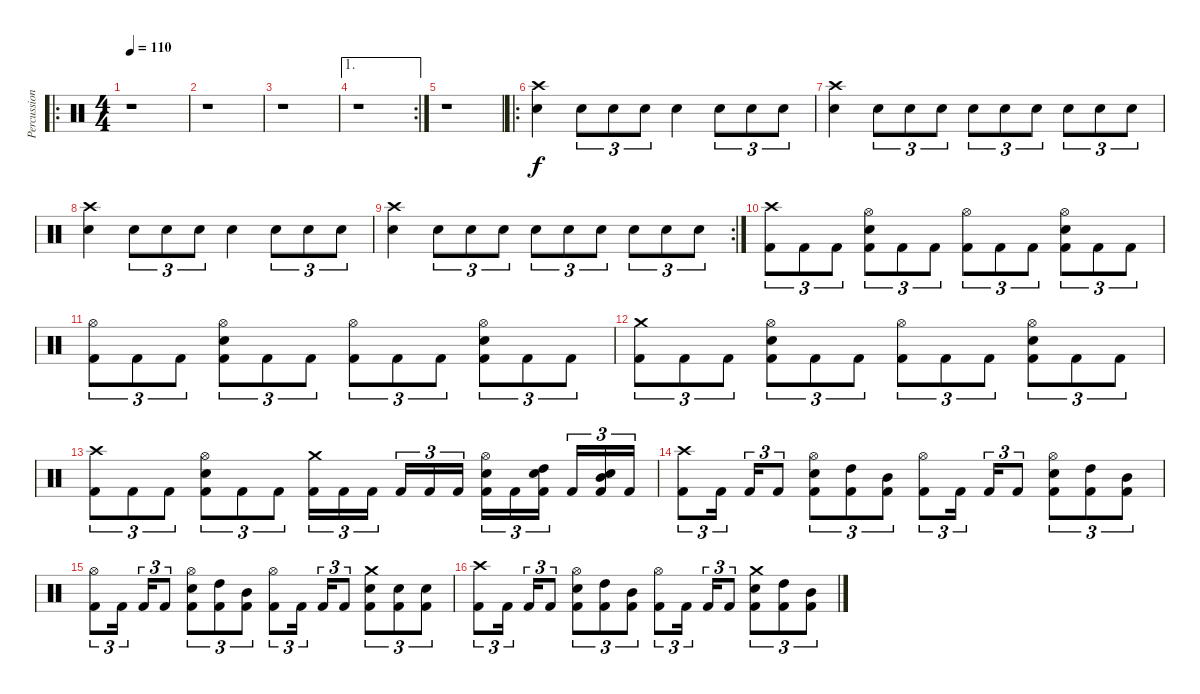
\track ("Percussion" "Percussion") {instrument percussion}
\staff {score}
\articulation defaults
\ro
\ts (4 4)
\tempo 110
\clef neutral
\ks c
r.1{dy f} |
r.1 |
r.1 |
\ae 1
\rc 2
r.1 |
r.1 |
\ro
("Crash high (hit)" "Snare (hit) 2").4 "Snare (hit) 2".8{tu (3 2)} "Snare (hit) 2".8{tu (3 2)} "Snare (hit) 2".8{tu (3 2)} "Snare (hit) 2".4 "Snare (hit) 2".8{tu (3 2)} "Snare (hit) 2".8{tu (3 2)} "Snare (hit) 2".8{tu (3 2)} |
("Crash high (hit)" "Snare (hit) 2").4 "Snare (hit) 2".8{tu (3 2)} "Snare (hit) 2".8{tu (3 2)} "Snare (hit) 2".8{tu (3 2)} "Snare (hit) 2".8{tu (3 2)} "Snare (hit) 2".8{tu (3 2)} "Snare (hit) 2".8{tu (3 2)} "Snare (hit) 2".8{tu (3 2)} "Snare (hit) 2".8{tu (3 2)} "Snare (hit) 2".8{tu (3 2)} |
("Crash high (hit)" "Snare (hit) 2").4 "Snare (hit) 2".8{tu (3 2)} "Snare (hit) 2".8{tu (3 2)} "Snare (hit) 2".8{tu (3 2)} "Snare (hit) 2".4 "Snare (hit) 2".8{tu (3 2)} "Snare (hit) 2".8{tu (3 2)} "Snare (hit) 2".8{tu (3 2)} |
\rc 2
("Crash high (hit)" "Snare (hit) 2").4 "Snare (hit) 2".8{tu (3 2)} "Snare (hit) 2".8{tu (3 2)} "Snare (hit) 2".8{tu (3 2)} "Snare (hit) 2".8{tu (3 2)} "Snare (hit) 2".8{tu (3 2)} "Snare (hit) 2".8{tu (3 2)} "Snare (hit) 2".8{tu (3 2)} "Snare (hit) 2".8{tu (3 2)} "Snare (hit) 2".8{tu (3 2)} |
\section ("" "")
("Crash high (hit)" "Kick (hit) 2").8{tu (3 2)} "Kick (hit) 2".8{tu (3 2)} "Kick (hit) 2".8{tu (3 2)} ("Hi-Hat (open)" "Snare (hit) 2" "Kick (hit) 2").8{tu (3 2)} "Kick (hit) 2".8{tu (3 2)} "Kick (hit) 2".8{tu (3 2)} ("Hi-Hat (open)" "Kick (hit) 2").8{tu (3 2)} "Kick (hit) 2".8{tu (3 2)} "Kick (hit) 2".8{tu (3 2)} ("Hi-Hat (open)" "Snare (hit) 2" "Kick (hit) 2").8{tu (3 2)} "Kick (hit) 2".8{tu (3 2)} "Kick (hit) 2".8{tu (3 2)} |
("Hi-Hat (open)" "Kick (hit) 2").8{tu (3 2)} "Kick (hit) 2".8{tu (3 2)} "Kick (hit) 2".8{tu (3 2)} ("Hi-Hat (open)" "Snare (hit) 2" "Kick (hit) 2").8{tu (3 2)} "Kick (hit) 2".8{tu (3 2)} "Kick (hit) 2".8{tu (3 2)} ("Hi-Hat (open)" "Kick (hit) 2").8{tu (3 2)} "Kick (hit) 2".8{tu (3 2)} "Kick (hit) 2".8{tu (3 2)} ("Hi-Hat (open)" "Snare (hit) 2" "Kick (hit) 2").8{tu (3 2)} "Kick (hit) 2".8{tu (3 2)} "Kick (hit) 2".8{tu (3 2)} |
("Crash medium (hit)" "Kick (hit) 2").8{tu (3 2)} "Kick (hit) 2".8{tu (3 2)} "Kick (hit) 2".8{tu (3 2)} ("Hi-Hat (open)" "Snare (hit) 2" "Kick (hit) 2").8{tu (3 2)} "Kick (hit) 2".8{tu (3 2)} "Kick (hit) 2".8{tu (3 2)} ("Hi-Hat (open)" "Kick (hit) 2").8{tu (3 2)} "Kick (hit) 2".8{tu (3 2)} "Kick (hit) 2".8{tu (3 2)} ("Hi-Hat (open)" "Snare (hit) 2" "Kick (hit) 2").8{tu (3 2)} "Kick (hit) 2".8{tu (3 2)} "Kick (hit) 2".8{tu (3 2)} |
("Crash high (hit)" "Kick (hit) 2").8{tu (3 2)} "Kick (hit) 2".8{tu (3 2)} "Kick (hit) 2".8{tu (3 2)} ("Hi-Hat (open)" "Snare (hit) 2" "Kick (hit) 2").8{tu (3 2)} "Kick (hit) 2".8{tu (3 2)} "Kick (hit) 2".8{tu (3 2)} ("Crash medium (hit)" "Kick (hit) 2").16{tu (3 2)} "Kick (hit) 2".16{tu (3 2)} "Kick (hit) 2".16{tu (3 2)} "Kick (hit) 2".16{tu (3 2)} "Kick (hit) 2".16{tu (3 2)} "Kick (hit) 2".16{tu (3 2)} ("Hi-Hat (open)" "Snare (hit) 2" "Kick (hit) 2").16{tu (3 2)} "Kick (hit) 2".16{tu (3 2)} ("High Tom (hit)" "Snare (hit) 2" "Kick (hit) 2").16{tu (3 2)} "Kick (hit) 2".16{tu (3 2)} ("Mid Tom (hit)" "Snare (hit) 2" "Kick (hit) 2").16{tu (3 2)} "Kick (hit) 2".16{tu (3 2)} |
("Crash high (hit)" "Kick (hit) 2").8{tu (3 2)} "Kick (hit) 2".16{tu (3 2)} "Kick (hit) 2".16{tu (3 2)} "Kick (hit) 2".8{tu (3 2)} ("Hi-Hat (open)" "Snare (hit) 2" "Kick (hit) 2").8{tu (3 2)} ("High Tom (hit)" "Kick (hit) 2").8{tu (3 2)} ("Mid Tom (hit)" "Kick (hit) 2").8{tu (3 2)} ("Hi-Hat (open)" "Kick (hit) 2").8{tu (3 2)} "Kick (hit) 2".16{tu (3 2)} "Kick (hit) 2".16{tu (3 2)} "Kick (hit) 2".8{tu (3 2)} ("Hi-Hat (open)" "Snare (hit) 2" "Kick (hit) 2").8{tu (3 2)} ("High Tom (hit)" "Kick (hit) 2").8{tu (3 2)} ("Mid Tom (hit)" "Kick (hit) 2").8{tu (3 2)} |
("Hi-Hat (open)" "Kick (hit) 2").8{tu (3 2)} "Kick (hit) 2".16{tu (3 2)} "Kick (hit) 2".16{tu (3 2)} "Kick (hit) 2".8{tu (3 2)} ("Hi-Hat (open)" "Snare (hit) 2" "Kick (hit) 2").8{tu (3 2)} ("High Tom (hit)" "Kick (hit) 2").8{tu (3 2)} ("Mid Tom (hit)" "Kick (hit) 2").8{tu (3 2)} ("Hi-Hat (open)" "Kick (hit) 2").8{tu (3 2)} "Kick (hit) 2".16{tu (3 2)} "Kick (hit) 2".16{tu (3 2)} "Kick (hit) 2".8{tu (3 2)} ("Crash medium (hit)" "Snare (hit) 2" "Kick (hit) 2").8{tu (3 2)} ("Snare (hit) 2" "Kick (hit) 2").8{tu (3 2)} ("Snare (hit) 2" "Kick (hit) 2").8{tu (3 2)} |
("Crash high (hit)" "Kick (hit) 2").8{tu (3 2)} "Kick (hit) 2".16{tu (3 2)} "Kick (hit) 2".16{tu (3 2)} "Kick (hit) 2".8{tu (3 2)} ("Hi-Hat (open)" "Snare (hit) 2" "Kick (hit) 2").8{tu (3 2)} ("High Tom (hit)" "Kick (hit) 2").8{tu (3 2)} ("Mid Tom (hit)" "Kick (hit) 2").8{tu (3 2)} ("Hi-Hat (open)" "Kick (hit) 2").8{tu (3 2)} "Kick (hit) 2".16{tu (3 2)} "Kick (hit) 2".16{tu (3 2)} "Kick (hit) 2".8{tu (3 2)} ("Crash medium (hit)" "Snare (hit) 2" "Kick (hit) 2").8{tu (3 2)} ("High Tom (hit)" "Kick (hit) 2").8{tu (3 2)} ("Mid Tom (hit)" "Kick (hit) 2").8{tu (3 2)}
